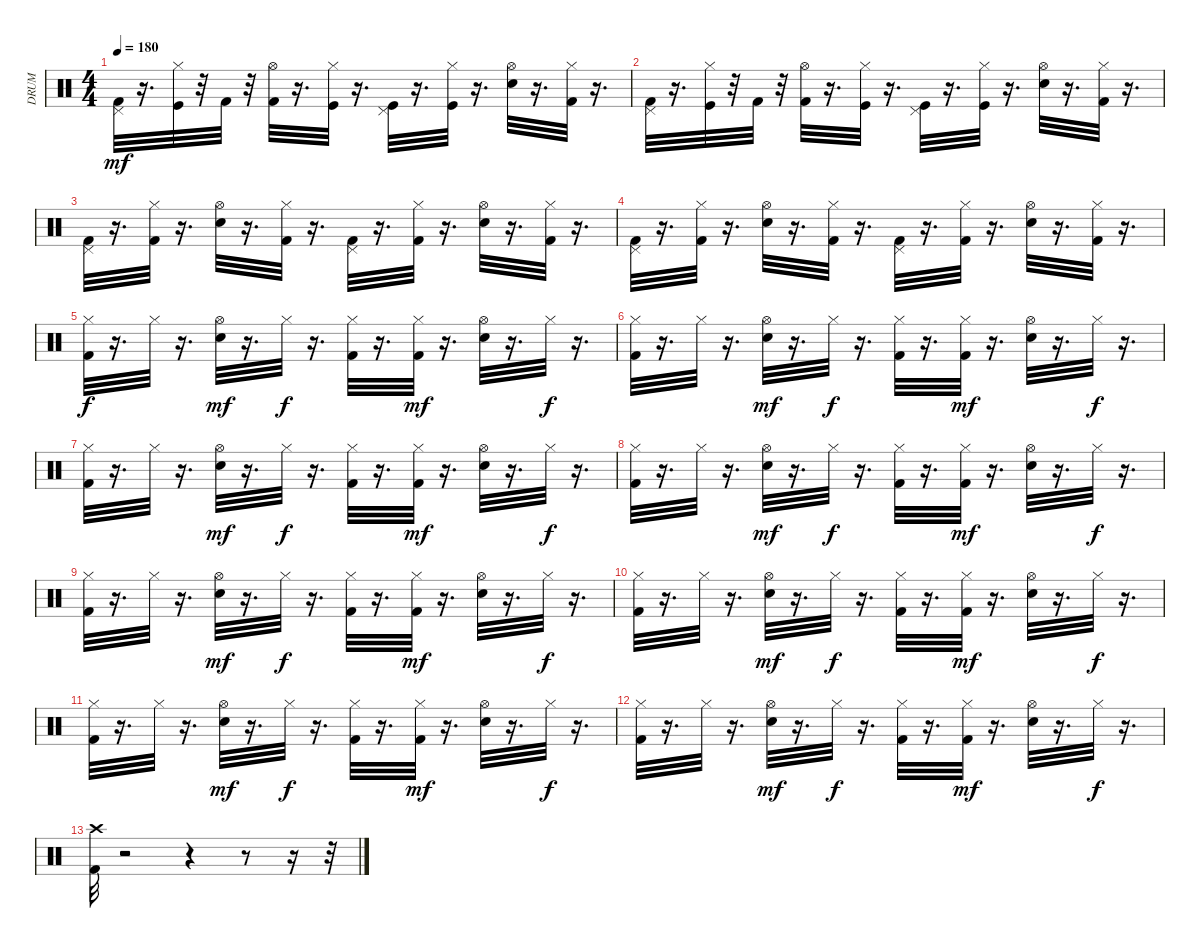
\track ("DRUM" "DRUM") {instrument percussion}
\staff {score}
\articulation defaults
\ts (4 4)
\tempo 180
\clef neutral
\ks c
("Kick (hit) 2" "Pedal Hi-Hat (hit)").32{dy mf} r.16{d} ("Hi-Hat (closed)" "Kick (hit)").32 r.32 "Kick (hit) 2".32 r.32 ("Kick (hit) 2" "Hi-Hat (open)").32 r.16{d} ("Kick (hit)" "Hi-Hat (closed)").32 r.16{d} ("Pedal Hi-Hat (hit)" "Kick (hit)").32 r.16{d} ("Hi-Hat (closed)" "Kick (hit)").32 r.16{d} ("Hi-Hat (open)" "Snare (hit) 2").32 r.16{d} ("Kick (hit) 2" "Hi-Hat (closed)").32 r.16{d} |
("Kick (hit) 2" "Pedal Hi-Hat (hit)").32 r.16{d} ("Hi-Hat (closed)" "Kick (hit)").32 r.32 "Kick (hit) 2".32 r.32 ("Kick (hit) 2" "Hi-Hat (open)").32 r.16{d} ("Hi-Hat (closed)" "Kick (hit)").32 r.16{d} ("Kick (hit)" "Pedal Hi-Hat (hit)").32 r.16{d} ("Kick (hit)" "Hi-Hat (closed)").32 r.16{d} ("Hi-Hat (open)" "Snare (hit) 2").32 r.16{d} ("Kick (hit) 2" "Hi-Hat (closed)").32 r.16{d} |
("Kick (hit) 2" "Pedal Hi-Hat (hit)").32 r.16{d} ("Hi-Hat (closed)" "Kick (hit) 2").32 r.16{d} ("Snare (hit) 2" "Hi-Hat (open)").32 r.16{d} ("Kick (hit) 2" "Hi-Hat (closed)").32 r.16{d} ("Kick (hit) 2" "Pedal Hi-Hat (hit)").32 r.16{d} ("Hi-Hat (closed)" "Kick (hit) 2").32 r.16{d} ("Snare (hit) 2" "Hi-Hat (open)").32 r.16{d} ("Hi-Hat (closed)" "Kick (hit) 2").32 r.16{d} |
("Pedal Hi-Hat (hit)" "Kick (hit) 2").32 r.16{d} ("Hi-Hat (closed)" "Kick (hit) 2").32 r.16{d} ("Hi-Hat (open)" "Snare (hit) 2").32 r.16{d} ("Hi-Hat (closed)" "Kick (hit) 2").32 r.16{d} ("Kick (hit) 2" "Pedal Hi-Hat (hit)").32 r.16{d} ("Hi-Hat (closed)" "Kick (hit) 2").32 r.16{d} ("Hi-Hat (open)" "Snare (hit) 2").32 r.16{d} ("Kick (hit) 2" "Hi-Hat (closed)").32 r.16{d} |
("Kick (hit) 2" "Hi-Hat (closed)").32{dy f} r.16{d} "Hi-Hat (closed)".32 r.16{d} ("Snare (hit) 2" "Hi-Hat (open)").32{dy mf} r.16{d} "Hi-Hat (closed)".32{dy f} r.16{d} ("Kick (hit) 2" "Hi-Hat (closed)").32 r.16{d} ("Kick (hit) 2" "Hi-Hat (closed)").32{dy mf} r.16{d} ("Snare (hit) 2" "Hi-Hat (open)").32 r.16{d} "Hi-Hat (closed)".32{dy f} r.16{d} |
("Kick (hit) 2" "Hi-Hat (closed)").32 r.16{d} "Hi-Hat (closed)".32 r.16{d} ("Snare (hit) 2" "Hi-Hat (open)").32{dy mf} r.16{d} "Hi-Hat (closed)".32{dy f} r.16{d} ("Kick (hit) 2" "Hi-Hat (closed)").32 r.16{d} ("Kick (hit) 2" "Hi-Hat (closed)").32{dy mf} r.16{d} ("Snare (hit) 2" "Hi-Hat (open)").32 r.16{d} "Hi-Hat (closed)".32{dy f} r.16{d} |
("Kick (hit) 2" "Hi-Hat (closed)").32 r.16{d} "Hi-Hat (closed)".32 r.16{d} ("Snare (hit) 2" "Hi-Hat (open)").32{dy mf} r.16{d} "Hi-Hat (closed)".32{dy f} r.16{d} ("Kick (hit) 2" "Hi-Hat (closed)").32 r.16{d} ("Kick (hit) 2" "Hi-Hat (closed)").32{dy mf} r.16{d} ("Snare (hit) 2" "Hi-Hat (open)").32 r.16{d} "Hi-Hat (closed)".32{dy f} r.16{d} |
("Kick (hit) 2" "Hi-Hat (closed)").32 r.16{d} "Hi-Hat (closed)".32 r.16{d} ("Snare (hit) 2" "Hi-Hat (open)").32{dy mf} r.16{d} "Hi-Hat (closed)".32{dy f} r.16{d} ("Kick (hit) 2" "Hi-Hat (closed)").32 r.16{d} ("Kick (hit) 2" "Hi-Hat (closed)").32{dy mf} r.16{d} ("Snare (hit) 2" "Hi-Hat (open)").32 r.16{d} "Hi-Hat (closed)".32{dy f} r.16{d} |
("Kick (hit) 2" "Hi-Hat (closed)").32 r.16{d} "Hi-Hat (closed)".32 r.16{d} ("Snare (hit) 2" "Hi-Hat (open)").32{dy mf} r.16{d} "Hi-Hat (closed)".32{dy f} r.16{d} ("Kick (hit) 2" "Hi-Hat (closed)").32 r.16{d} ("Kick (hit) 2" "Hi-Hat (closed)").32{dy mf} r.16{d} ("Snare (hit) 2" "Hi-Hat (open)").32 r.16{d} "Hi-Hat (closed)".32{dy f} r.16{d} |
("Kick (hit) 2" "Hi-Hat (closed)").32 r.16{d} "Hi-Hat (closed)".32 r.16{d} ("Snare (hit) 2" "Hi-Hat (open)").32{dy mf} r.16{d} "Hi-Hat (closed)".32{dy f} r.16{d} ("Kick (hit) 2" "Hi-Hat (closed)").32 r.16{d} ("Kick (hit) 2" "Hi-Hat (closed)").32{dy mf} r.16{d} ("Snare (hit) 2" "Hi-Hat (open)").32 r.16{d} "Hi-Hat (closed)".32{dy f} r.16{d} |
("Kick (hit) 2" "Hi-Hat (closed)").32 r.16{d} "Hi-Hat (closed)".32 r.16{d} ("Snare (hit) 2" "Hi-Hat (open)").32{dy mf} r.16{d} "Hi-Hat (closed)".32{dy f} r.16{d} ("Kick (hit) 2" "Hi-Hat (closed)").32 r.16{d} ("Kick (hit) 2" "Hi-Hat (closed)").32{dy mf} r.16{d} ("Snare (hit) 2" "Hi-Hat (open)").32 r.16{d} "Hi-Hat (closed)".32{dy f} r.16{d} |
("Kick (hit) 2" "Hi-Hat (closed)").32 r.16{d} "Hi-Hat (closed)".32 r.16{d} ("Snare (hit) 2" "Hi-Hat (open)").32{dy mf} r.16{d} "Hi-Hat (closed)".32{dy f} r.16{d} ("Kick (hit) 2" "Hi-Hat (closed)").32 r.16{d} ("Kick (hit) 2" "Hi-Hat (closed)").32{dy mf} r.16{d} ("Snare (hit) 2" "Hi-Hat (open)").32 r.16{d} "Hi-Hat (closed)".32{dy f} r.16{d} |
("Crash high (hit)" "Kick (hit) 2").32 r.2 r.4 r.8 r.16 r.32
